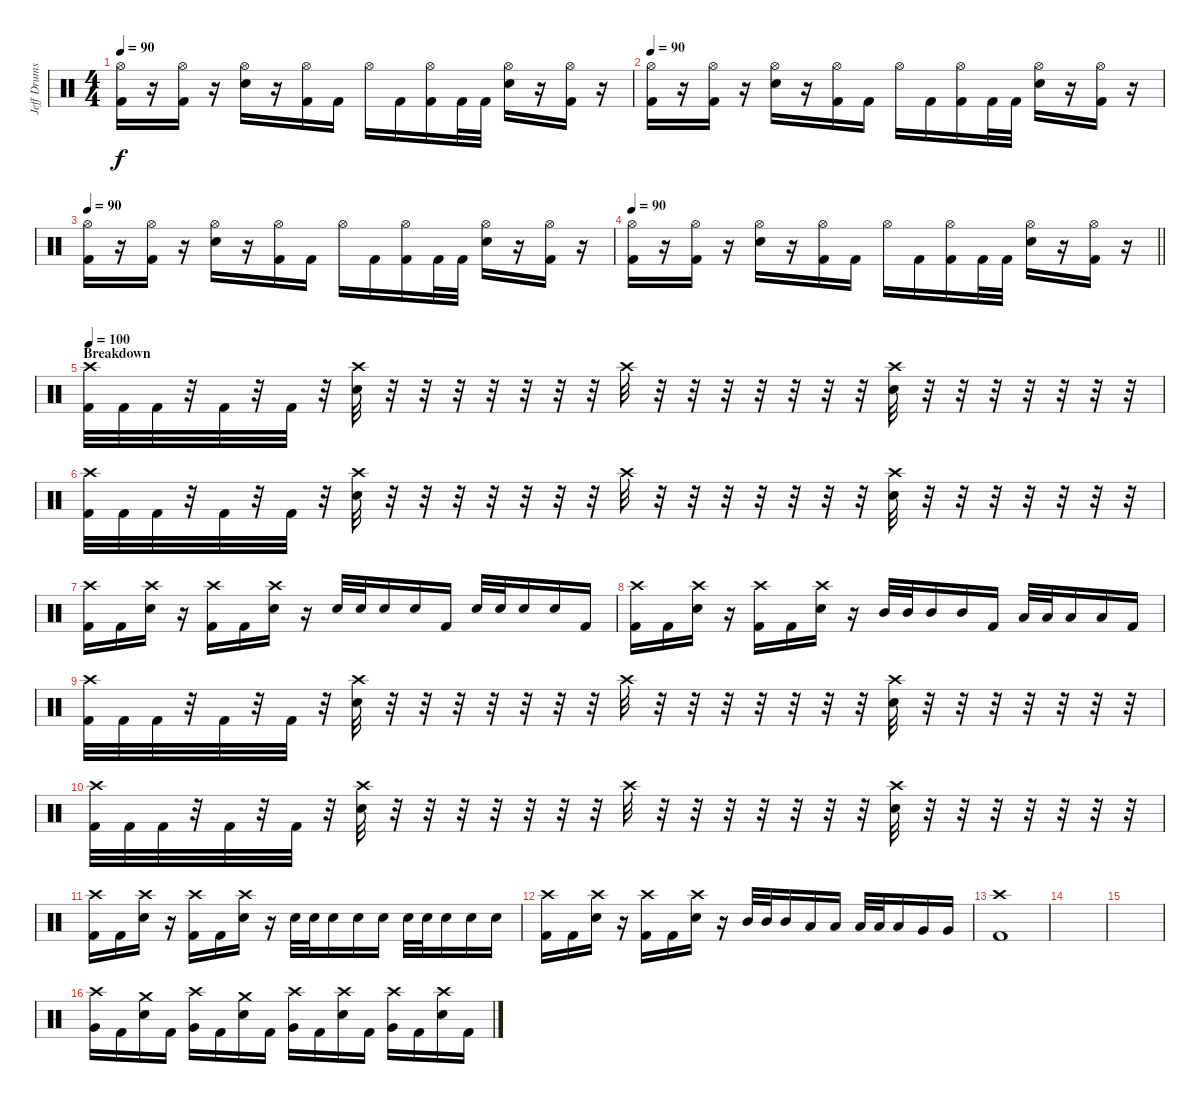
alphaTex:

\track ("Jeff Drums" "Jeff Drums") {instrument percussion}
\staff {score}
\articulation defaults
\ts (4 4)
\tempo 90
\clef neutral
\ks c
("Hi-Hat (open)" "Kick (hit) 2").16{dy f} r.16 ("Hi-Hat (open)" "Kick (hit) 2").16 r.16 ("Hi-Hat (open)" "Electric Snare (hit)").16 r.16 ("Hi-Hat (open)" "Kick (hit) 2").16 "Kick (hit) 2".16 "Hi-Hat (open)".16 "Kick (hit) 2".16 ("Hi-Hat (open)" "Kick (hit) 2").16 "Kick (hit) 2".32 "Kick (hit) 2".32 ("Hi-Hat (open)" "Electric Snare (hit)").16 r.16 ("Hi-Hat (open)" "Kick (hit) 2").16 r.16 |
\tempo 90
("Hi-Hat (open)" "Kick (hit) 2").16 r.16 ("Hi-Hat (open)" "Kick (hit) 2").16 r.16 ("Hi-Hat (open)" "Electric Snare (hit)").16 r.16 ("Hi-Hat (open)" "Kick (hit) 2").16 "Kick (hit) 2".16 "Hi-Hat (open)".16 "Kick (hit) 2".16 ("Hi-Hat (open)" "Kick (hit) 2").16 "Kick (hit) 2".32 "Kick (hit) 2".32 ("Hi-Hat (open)" "Electric Snare (hit)").16 r.16 ("Hi-Hat (open)" "Kick (hit) 2").16 r.16 |
\tempo 90
("Hi-Hat (open)" "Kick (hit) 2").16 r.16 ("Hi-Hat (open)" "Kick (hit) 2").16 r.16 ("Hi-Hat (open)" "Electric Snare (hit)").16 r.16 ("Hi-Hat (open)" "Kick (hit) 2").16 "Kick (hit) 2".16 "Hi-Hat (open)".16 "Kick (hit) 2".16 ("Hi-Hat (open)" "Kick (hit) 2").16 "Kick (hit) 2".32 "Kick (hit) 2".32 ("Hi-Hat (open)" "Electric Snare (hit)").16 r.16 ("Hi-Hat (open)" "Kick (hit) 2").16 r.16 |
\tempo 90
\barLineRight lightlight
("Hi-Hat (open)" "Kick (hit) 2").16 r.16 ("Hi-Hat (open)" "Kick (hit) 2").16 r.16 ("Hi-Hat (open)" "Electric Snare (hit)").16 r.16 ("Hi-Hat (open)" "Kick (hit) 2").16 "Kick (hit) 2".16 "Hi-Hat (open)".16 "Kick (hit) 2".16 ("Hi-Hat (open)" "Kick (hit) 2").16 "Kick (hit) 2".32 "Kick (hit) 2".32 ("Hi-Hat (open)" "Electric Snare (hit)").16 r.16 ("Hi-Hat (open)" "Kick (hit) 2").16 r.16 |
\section ("" "Breakdown")
\tempo 100
("Crash high (hit)" "Kick (hit) 2").32 "Kick (hit) 2".32 "Kick (hit) 2".32 r.32 "Kick (hit) 2".32 r.32 "Kick (hit) 2".32 r.32 ("Crash high (hit)" "Electric Snare (hit)").32 r.32 r.32 r.32 r.32 r.32 r.32 r.32 "Crash high (hit)".32 r.32 r.32 r.32 r.32 r.32 r.32 r.32 ("Crash high (hit)" "Electric Snare (hit)").32 r.32 r.32 r.32 r.32 r.32 r.32 r.32 |
("Crash high (hit)" "Kick (hit) 2").32 "Kick (hit) 2".32 "Kick (hit) 2".32 r.32 "Kick (hit) 2".32 r.32 "Kick (hit) 2".32 r.32 ("Crash high (hit)" "Electric Snare (hit)").32 r.32 r.32 r.32 r.32 r.32 r.32 r.32 "Crash high (hit)".32 r.32 r.32 r.32 r.32 r.32 r.32 r.32 ("Crash high (hit)" "Electric Snare (hit)").32 r.32 r.32 r.32 r.32 r.32 r.32 r.32 |
("Crash high (hit)" "Kick (hit) 2").16 "Kick (hit) 2".16 ("Crash high (hit)" "Electric Snare (hit)").16 r.16 ("Crash high (hit)" "Kick (hit) 2").16 "Kick (hit) 2".16 ("Crash high (hit)" "Electric Snare (hit)").16 r.16 "Electric Snare (hit)".32 "Electric Snare (hit)".32 "Electric Snare (hit)".16 "Electric Snare (hit)".16 "Kick (hit) 2".16 "Electric Snare (hit)".32 "Electric Snare (hit)".32 "Electric Snare (hit)".16 "Electric Snare (hit)".16 "Kick (hit) 2".16 |
("Crash high (hit)" "Kick (hit) 2").16 "Kick (hit) 2".16 ("Crash high (hit)" "Electric Snare (hit)").16 r.16 ("Crash high (hit)" "Kick (hit) 2").16 "Kick (hit) 2".16 ("Crash high (hit)" "Electric Snare (hit)").16 r.16 "Mid Tom (hit)".32 "Mid Tom (hit)".32 "Mid Tom (hit)".16 "Mid Tom (hit)".16 "Kick (hit) 2".16 "Low Tom (hit)".32 "Low Tom (hit)".32 "Low Tom (hit)".16 "Low Tom (hit)".16 "Kick (hit) 2".16 |
("Crash high (hit)" "Kick (hit) 2").32 "Kick (hit) 2".32 "Kick (hit) 2".32 r.32 "Kick (hit) 2".32 r.32 "Kick (hit) 2".32 r.32 ("Crash high (hit)" "Electric Snare (hit)").32 r.32 r.32 r.32 r.32 r.32 r.32 r.32 "Crash high (hit)".32 r.32 r.32 r.32 r.32 r.32 r.32 r.32 ("Crash high (hit)" "Electric Snare (hit)").32 r.32 r.32 r.32 r.32 r.32 r.32 r.32 |
("Crash high (hit)" "Kick (hit) 2").32 "Kick (hit) 2".32 "Kick (hit) 2".32 r.32 "Kick (hit) 2".32 r.32 "Kick (hit) 2".32 r.32 ("Crash high (hit)" "Electric Snare (hit)").32 r.32 r.32 r.32 r.32 r.32 r.32 r.32 "Crash high (hit)".32 r.32 r.32 r.32 r.32 r.32 r.32 r.32 ("Crash high (hit)" "Electric Snare (hit)").32 r.32 r.32 r.32 r.32 r.32 r.32 r.32 |
("Crash high (hit)" "Kick (hit) 2").16 "Kick (hit) 2".16 ("Crash high (hit)" "Electric Snare (hit)").16 r.16 ("Crash high (hit)" "Kick (hit) 2").16 "Kick (hit) 2".16 ("Crash high (hit)" "Electric Snare (hit)").16 r.16 "Electric Snare (hit)".32 "Electric Snare (hit)".32 "Electric Snare (hit)".16 "Electric Snare (hit)".16 "Electric Snare (hit)".16 "Electric Snare (hit)".32 "Electric Snare (hit)".32 "Electric Snare (hit)".16 "Electric Snare (hit)".16 "Electric Snare (hit)".16 |
("Crash high (hit)" "Kick (hit) 2").16 "Kick (hit) 2".16 ("Crash high (hit)" "Electric Snare (hit)").16 r.16 ("Crash high (hit)" "Kick (hit) 2").16 "Kick (hit) 2".16 ("Crash high (hit)" "Electric Snare (hit)").16 r.16 "Mid Tom (hit)".32 "Mid Tom (hit)".32 "Mid Tom (hit)".16 "Low Tom (hit)".16 "Low Tom (hit)".16 "Low Tom (hit)".32 "Low Tom (hit)".32 "Low Tom (hit)".16 "Very Low Tom (hit)".16 "Very Low Tom (hit)".16 |
("Crash high (hit)" "Kick (hit) 2").1 |
|
|
("Crash high (hit)" "Very Low Tom (hit)").16 "Kick (hit) 2".16 ("Crash medium (hit)" "Electric Snare (hit)").16 "Kick (hit) 2".16 ("Crash high (hit)" "Very Low Tom (hit)").16 "Kick (hit) 2".16 ("Crash medium (hit)" "Electric Snare (hit)").16 "Kick (hit) 2".16 ("Crash high (hit)" "Very Low Tom (hit)").16 "Kick (hit) 2".16 ("Crash high (hit)" "Electric Snare (hit)").16 "Kick (hit) 2".16 ("Crash high (hit)" "Very Low Tom (hit)").16 "Kick (hit) 2".16 ("Crash high (hit)" "Electric Snare (hit)").16 "Kick (hit) 2".16
